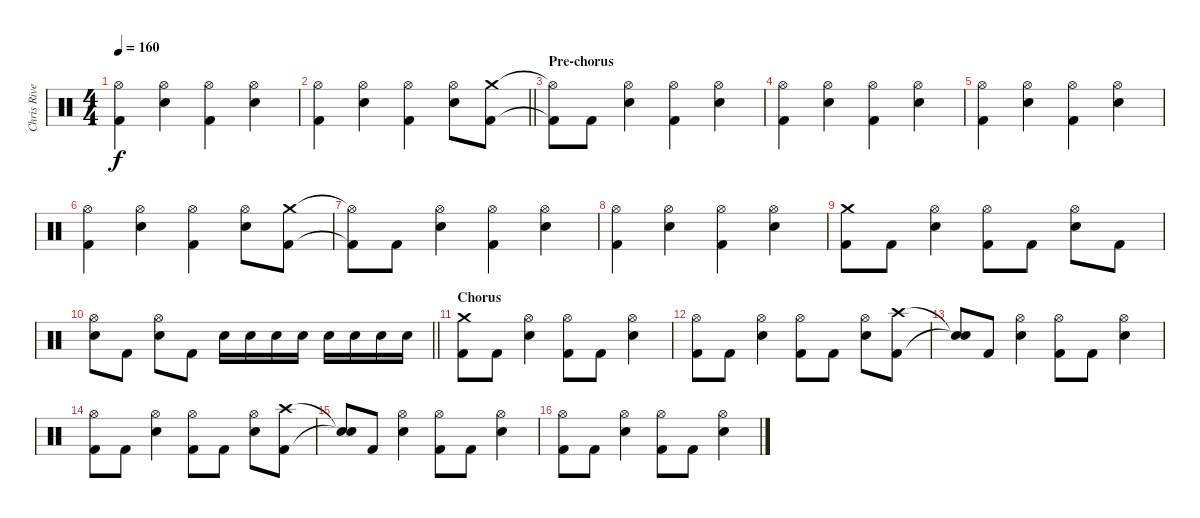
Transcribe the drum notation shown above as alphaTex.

\track ("Chris Rivers" "Chris Rive") {instrument percussion}
\staff {score}
\articulation defaults
\ts (4 4)
\tempo 160
\clef neutral
\ks c
("Hi-Hat (open)" "Kick (hit) 2").4{dy f} ("Hi-Hat (open)" "Electric Snare (hit)").4 ("Hi-Hat (open)" "Kick (hit) 2").4 ("Hi-Hat (open)" "Electric Snare (hit)").4 |
\barLineRight lightlight
("Hi-Hat (open)" "Kick (hit) 2").4 ("Hi-Hat (open)" "Electric Snare (hit)").4 ("Hi-Hat (open)" "Kick (hit) 2").4 ("Hi-Hat (open)" "Electric Snare (hit)").8 ("Crash medium (hit)" "Kick (hit) 2").8 |
\section ("" "Pre-chorus")
("Hi-Hat (open)"{t} "Kick (hit) 2"{t}).8 "Kick (hit) 2".8 ("Hi-Hat (open)" "Electric Snare (hit)").4 ("Hi-Hat (open)" "Kick (hit) 2").4 ("Hi-Hat (open)" "Electric Snare (hit)").4 |
("Hi-Hat (open)" "Kick (hit) 2").4 ("Hi-Hat (open)" "Electric Snare (hit)").4 ("Hi-Hat (open)" "Kick (hit) 2").4 ("Hi-Hat (open)" "Electric Snare (hit)").4 |
("Hi-Hat (open)" "Kick (hit) 2").4 ("Hi-Hat (open)" "Electric Snare (hit)").4 ("Hi-Hat (open)" "Kick (hit) 2").4 ("Hi-Hat (open)" "Electric Snare (hit)").4 |
("Hi-Hat (open)" "Kick (hit) 2").4 ("Hi-Hat (open)" "Electric Snare (hit)").4 ("Hi-Hat (open)" "Kick (hit) 2").4 ("Hi-Hat (open)" "Electric Snare (hit)").8 ("Crash medium (hit)" "Kick (hit) 2").8 |
("Hi-Hat (open)"{t} "Kick (hit) 2"{t}).8 "Kick (hit) 2".8 ("Hi-Hat (open)" "Electric Snare (hit)").4 ("Hi-Hat (open)" "Kick (hit) 2").4 ("Hi-Hat (open)" "Electric Snare (hit)").4 |
("Hi-Hat (open)" "Kick (hit) 2").4 ("Hi-Hat (open)" "Electric Snare (hit)").4 ("Hi-Hat (open)" "Kick (hit) 2").4 ("Hi-Hat (open)" "Electric Snare (hit)").4 |
("Crash medium (hit)" "Kick (hit) 2").8 "Kick (hit) 2".8 ("Hi-Hat (open)" "Electric Snare (hit)").4 ("Hi-Hat (open)" "Kick (hit) 2").8 "Kick (hit) 2".8 ("Hi-Hat (open)" "Electric Snare (hit)").8 "Kick (hit) 2".8 |
\barLineRight lightlight
("Hi-Hat (open)" "Electric Snare (hit)").8 "Kick (hit) 2".8 ("Hi-Hat (open)" "Electric Snare (hit)").8 "Kick (hit) 2".8 "Electric Snare (hit)".16 "Electric Snare (hit)".16 "Electric Snare (hit)".16 "Electric Snare (hit)".16 "Electric Snare (hit)".16 "Electric Snare (hit)".16 "Electric Snare (hit)".16 "Electric Snare (hit)".16 |
\section ("" "Chorus")
("Crash medium (hit)" "Kick (hit) 2").8 "Kick (hit) 2".8 ("Hi-Hat (open)" "Electric Snare (hit)").4 ("Hi-Hat (open)" "Kick (hit) 2").8 "Kick (hit) 2".8 ("Hi-Hat (open)" "Electric Snare (hit)").4 |
("Hi-Hat (open)" "Kick (hit) 2").8 "Kick (hit) 2".8 ("Hi-Hat (open)" "Electric Snare (hit)").4 ("Hi-Hat (open)" "Kick (hit) 2").8 "Kick (hit) 2".8 ("Hi-Hat (open)" "Electric Snare (hit)").8 ("Crash high (hit)" "Kick (hit) 2").8 |
("Snare (hit)"{t} "Snare (hit)"{t}).8 "Kick (hit) 2".8 ("Hi-Hat (open)" "Electric Snare (hit)").4 ("Hi-Hat (open)" "Kick (hit) 2").8 "Kick (hit) 2".8 ("Hi-Hat (open)" "Electric Snare (hit)").4 |
("Hi-Hat (open)" "Kick (hit) 2").8 "Kick (hit) 2".8 ("Hi-Hat (open)" "Electric Snare (hit)").4 ("Hi-Hat (open)" "Kick (hit) 2").8 "Kick (hit) 2".8 ("Hi-Hat (open)" "Electric Snare (hit)").8 ("Crash high (hit)" "Kick (hit) 2").8 |
("Snare (hit)"{t} "Snare (hit)"{t}).8 "Kick (hit) 2".8 ("Hi-Hat (open)" "Electric Snare (hit)").4 ("Hi-Hat (open)" "Kick (hit) 2").8 "Kick (hit) 2".8 ("Hi-Hat (open)" "Electric Snare (hit)").4 |
("Hi-Hat (open)" "Kick (hit) 2").8 "Kick (hit) 2".8 ("Hi-Hat (open)" "Electric Snare (hit)").4 ("Hi-Hat (open)" "Kick (hit) 2").8 "Kick (hit) 2".8 ("Hi-Hat (open)" "Electric Snare (hit)").4
